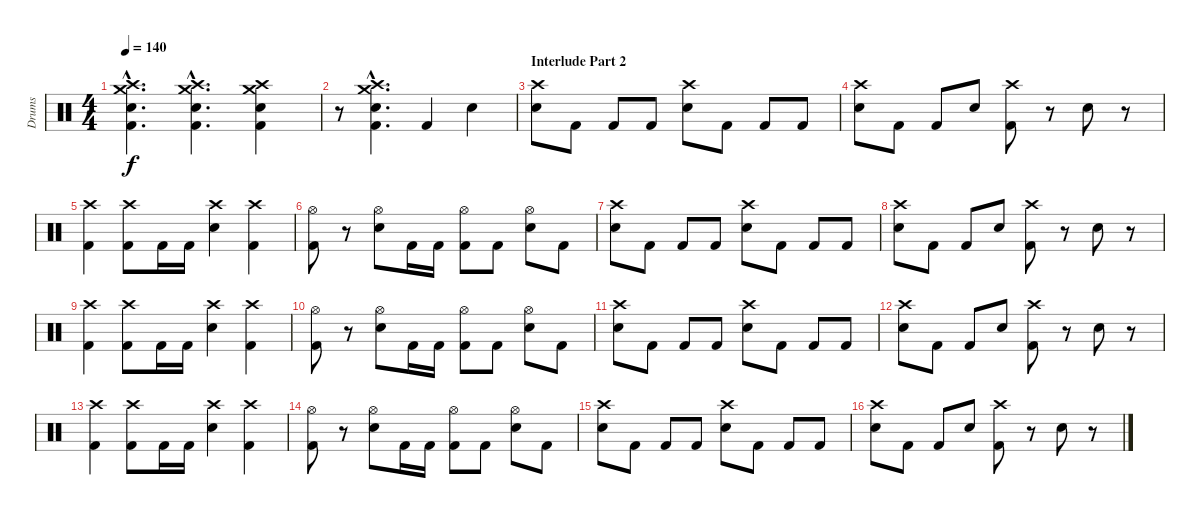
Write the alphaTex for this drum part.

\track ("Drums" "Drums") {instrument percussion}
\staff {score}
\articulation defaults
\ts (4 4)
\tempo 140
\clef neutral
\ks c
("Crash high (hit)"{hac} "Crash medium (hit)"{hac} "Snare (hit) 2"{hac} "Kick (hit) 2"{hac}).4{d dy f volume 16} ("Crash high (hit)"{hac} "Crash medium (hit)"{hac} "Snare (hit) 2"{hac} "Kick (hit) 2"{hac}).4{d} ("Crash high (hit)" "Crash medium (hit)" "Snare (hit) 2" "Kick (hit) 2").4 |
r.8 ("Crash high (hit)"{hac} "Crash medium (hit)"{hac} "Snare (hit) 2"{hac} "Kick (hit) 2"{hac}).4{d} "Kick (hit) 2".4 "Snare (hit) 2".4 |
\section ("" "Interlude Part 2")
("Crash high (hit)" "Snare (hit) 2").8 "Kick (hit) 2".8 "Kick (hit) 2".8 "Kick (hit) 2".8 ("Crash high (hit)" "Snare (hit) 2").8 "Kick (hit) 2".8 "Kick (hit) 2".8 "Kick (hit) 2".8 |
("Crash high (hit)" "Snare (hit) 2").8 "Kick (hit) 2".8 "Kick (hit) 2".8 "Snare (hit) 2".8 ("Crash high (hit)" "Kick (hit) 2").8 r.8 "Snare (hit) 2".8 r.8 |
("Crash high (hit)" "Kick (hit) 2").4 ("Crash high (hit)" "Kick (hit) 2").8 "Kick (hit) 2".16 "Kick (hit) 2".16 ("Crash high (hit)" "Snare (hit) 2").4 ("Crash high (hit)" "Kick (hit) 2").4 |
("Hi-Hat (open)" "Kick (hit) 2").8 r.8 ("Hi-Hat (open)" "Snare (hit) 2").8 "Kick (hit) 2".16 "Kick (hit) 2".16 ("Hi-Hat (open)" "Kick (hit) 2").8 "Kick (hit) 2".8 ("Hi-Hat (open)" "Snare (hit) 2").8 "Kick (hit) 2".8 |
("Crash high (hit)" "Snare (hit) 2").8 "Kick (hit) 2".8 "Kick (hit) 2".8 "Kick (hit) 2".8 ("Crash high (hit)" "Snare (hit) 2").8 "Kick (hit) 2".8 "Kick (hit) 2".8 "Kick (hit) 2".8 |
("Crash high (hit)" "Snare (hit) 2").8 "Kick (hit) 2".8 "Kick (hit) 2".8 "Snare (hit) 2".8 ("Crash high (hit)" "Kick (hit) 2").8 r.8 "Snare (hit) 2".8 r.8 |
("Crash high (hit)" "Kick (hit) 2").4 ("Crash high (hit)" "Kick (hit) 2").8 "Kick (hit) 2".16 "Kick (hit) 2".16 ("Crash high (hit)" "Snare (hit) 2").4 ("Crash high (hit)" "Kick (hit) 2").4 |
("Hi-Hat (open)" "Kick (hit) 2").8 r.8 ("Hi-Hat (open)" "Snare (hit) 2").8 "Kick (hit) 2".16 "Kick (hit) 2".16 ("Hi-Hat (open)" "Kick (hit) 2").8 "Kick (hit) 2".8 ("Hi-Hat (open)" "Snare (hit) 2").8 "Kick (hit) 2".8 |
("Crash high (hit)" "Snare (hit) 2").8 "Kick (hit) 2".8 "Kick (hit) 2".8 "Kick (hit) 2".8 ("Crash high (hit)" "Snare (hit) 2").8 "Kick (hit) 2".8 "Kick (hit) 2".8 "Kick (hit) 2".8 |
("Crash high (hit)" "Snare (hit) 2").8 "Kick (hit) 2".8 "Kick (hit) 2".8 "Snare (hit) 2".8 ("Crash high (hit)" "Kick (hit) 2").8 r.8 "Snare (hit) 2".8 r.8 |
("Crash high (hit)" "Kick (hit) 2").4 ("Crash high (hit)" "Kick (hit) 2").8 "Kick (hit) 2".16 "Kick (hit) 2".16 ("Crash high (hit)" "Snare (hit) 2").4 ("Crash high (hit)" "Kick (hit) 2").4 |
("Hi-Hat (open)" "Kick (hit) 2").8 r.8 ("Hi-Hat (open)" "Snare (hit) 2").8 "Kick (hit) 2".16 "Kick (hit) 2".16 ("Hi-Hat (open)" "Kick (hit) 2").8 "Kick (hit) 2".8 ("Hi-Hat (open)" "Snare (hit) 2").8 "Kick (hit) 2".8 |
("Crash high (hit)" "Snare (hit) 2").8 "Kick (hit) 2".8 "Kick (hit) 2".8 "Kick (hit) 2".8 ("Crash high (hit)" "Snare (hit) 2").8 "Kick (hit) 2".8 "Kick (hit) 2".8 "Kick (hit) 2".8 |
("Crash high (hit)" "Snare (hit) 2").8 "Kick (hit) 2".8 "Kick (hit) 2".8 "Snare (hit) 2".8 ("Crash high (hit)" "Kick (hit) 2").8 r.8 "Snare (hit) 2".8 r.8
